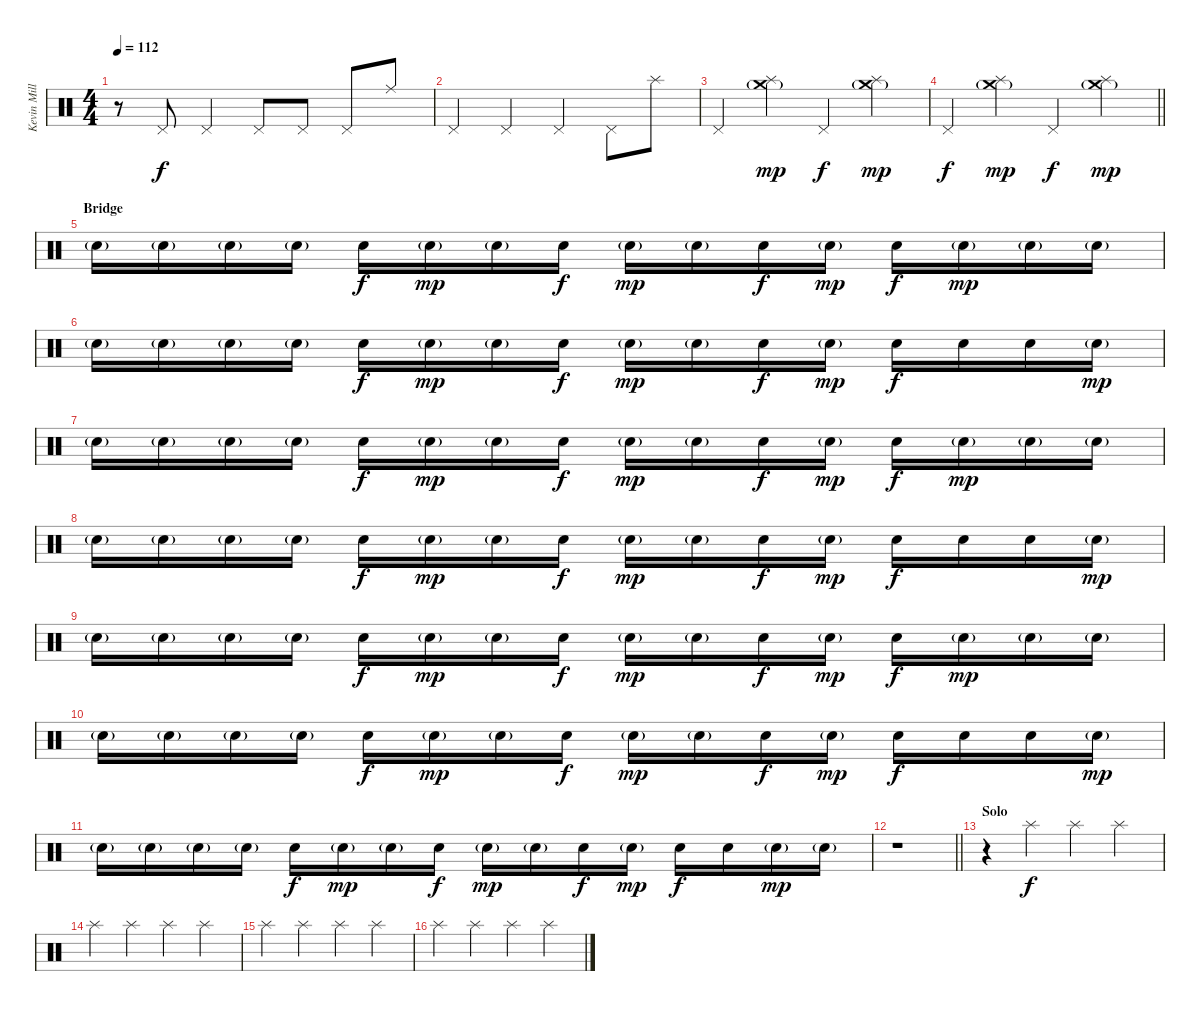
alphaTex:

\track ("Kevin Miller (Drums)" "Kevin Mill") {instrument percussion}
\staff {score}
\articulation defaults
\ts (4 4)
\tempo 112
\clef neutral
\ks c
r.8{dy f} "Pedal Hi-Hat (hit)".8 "Pedal Hi-Hat (hit)".4 "Pedal Hi-Hat (hit)".8 "Pedal Hi-Hat (hit)".8 "Pedal Hi-Hat (hit)".8 "Ride (middle)".8 |
"Pedal Hi-Hat (hit)".4 "Pedal Hi-Hat (hit)".4 "Pedal Hi-Hat (hit)".4 "Pedal Hi-Hat (hit)".8 "Splash (hit)".8 |
"Pedal Hi-Hat (hit)".4 ("Splash (hit)" "Crash medium (hit)"{g}).4{dy mp} "Pedal Hi-Hat (hit)".4{dy f} ("Splash (hit)" "Crash medium (hit)"{g}).4{dy mp} |
\barLineRight lightlight "Pedal Hi-Hat (hit)".4{dy f}
("Splash (hit)" "Crash medium (hit)"{g}).4{dy mp} "Pedal Hi-Hat (hit)".4{dy f} ("Splash (hit)" "Crash medium (hit)"{g}).4{dy mp} |
\section ("" "Bridge")
"Electric Snare (hit)"{g}.16 "Electric Snare (hit)"{g}.16 "Electric Snare (hit)"{g}.16 "Electric Snare (hit)"{g}.16 "Electric Snare (hit)".16{dy f} "Electric Snare (hit)"{g}.16{dy mp} "Electric Snare (hit)"{g}.16 "Electric Snare (hit)".16{dy f} "Electric Snare (hit)"{g}.16{dy mp} "Electric Snare (hit)"{g}.16 "Electric Snare (hit)".16{dy f} "Electric Snare (hit)"{g}.16{dy mp} "Electric Snare (hit)".16{dy f} "Electric Snare (hit)"{g}.16{dy mp} "Electric Snare (hit)"{g}.16 "Electric Snare (hit)"{g}.16 |
"Electric Snare (hit)"{g}.16 "Electric Snare (hit)"{g}.16 "Electric Snare (hit)"{g}.16 "Electric Snare (hit)"{g}.16 "Electric Snare (hit)".16{dy f} "Electric Snare (hit)"{g}.16{dy mp} "Electric Snare (hit)"{g}.16 "Electric Snare (hit)".16{dy f} "Electric Snare (hit)"{g}.16{dy mp} "Electric Snare (hit)"{g}.16 "Electric Snare (hit)".16{dy f} "Electric Snare (hit)"{g}.16{dy mp} "Electric Snare (hit)".16{dy f} "Electric Snare (hit)".16 "Electric Snare (hit)".16 "Electric Snare (hit)"{g}.16{dy mp} |
"Electric Snare (hit)"{g}.16 "Electric Snare (hit)"{g}.16 "Electric Snare (hit)"{g}.16 "Electric Snare (hit)"{g}.16 "Electric Snare (hit)".16{dy f} "Electric Snare (hit)"{g}.16{dy mp} "Electric Snare (hit)"{g}.16 "Electric Snare (hit)".16{dy f} "Electric Snare (hit)"{g}.16{dy mp} "Electric Snare (hit)"{g}.16 "Electric Snare (hit)".16{dy f} "Electric Snare (hit)"{g}.16{dy mp} "Electric Snare (hit)".16{dy f} "Electric Snare (hit)"{g}.16{dy mp} "Electric Snare (hit)"{g}.16 "Electric Snare (hit)"{g}.16 |
"Electric Snare (hit)"{g}.16 "Electric Snare (hit)"{g}.16 "Electric Snare (hit)"{g}.16 "Electric Snare (hit)"{g}.16 "Electric Snare (hit)".16{dy f} "Electric Snare (hit)"{g}.16{dy mp} "Electric Snare (hit)"{g}.16 "Electric Snare (hit)".16{dy f} "Electric Snare (hit)"{g}.16{dy mp} "Electric Snare (hit)"{g}.16 "Electric Snare (hit)".16{dy f} "Electric Snare (hit)"{g}.16{dy mp} "Electric Snare (hit)".16{dy f} "Electric Snare (hit)".16 "Electric Snare (hit)".16 "Electric Snare (hit)"{g}.16{dy mp} |
"Electric Snare (hit)"{g}.16 "Electric Snare (hit)"{g}.16 "Electric Snare (hit)"{g}.16 "Electric Snare (hit)"{g}.16 "Electric Snare (hit)".16{dy f} "Electric Snare (hit)"{g}.16{dy mp} "Electric Snare (hit)"{g}.16 "Electric Snare (hit)".16{dy f} "Electric Snare (hit)"{g}.16{dy mp} "Electric Snare (hit)"{g}.16 "Electric Snare (hit)".16{dy f} "Electric Snare (hit)"{g}.16{dy mp} "Electric Snare (hit)".16{dy f} "Electric Snare (hit)"{g}.16{dy mp} "Electric Snare (hit)"{g}.16 "Electric Snare (hit)"{g}.16 |
"Electric Snare (hit)"{g}.16 "Electric Snare (hit)"{g}.16 "Electric Snare (hit)"{g}.16 "Electric Snare (hit)"{g}.16 "Electric Snare (hit)".16{dy f} "Electric Snare (hit)"{g}.16{dy mp} "Electric Snare (hit)"{g}.16 "Electric Snare (hit)".16{dy f} "Electric Snare (hit)"{g}.16{dy mp} "Electric Snare (hit)"{g}.16 "Electric Snare (hit)".16{dy f} "Electric Snare (hit)"{g}.16{dy mp} "Electric Snare (hit)".16{dy f} "Electric Snare (hit)".16 "Electric Snare (hit)".16 "Electric Snare (hit)"{g}.16{dy mp} |
"Electric Snare (hit)"{g}.16 "Electric Snare (hit)"{g}.16 "Electric Snare (hit)"{g}.16 "Electric Snare (hit)"{g}.16 "Electric Snare (hit)".16{dy f} "Electric Snare (hit)"{g}.16{dy mp} "Electric Snare (hit)"{g}.16 "Electric Snare (hit)".16{dy f} "Electric Snare (hit)"{g}.16{dy mp} "Electric Snare (hit)"{g}.16 "Electric Snare (hit)".16{dy f} "Electric Snare (hit)"{g}.16{dy mp} "Electric Snare (hit)".16{dy f} "Electric Snare (hit)".16 "Electric Snare (hit)"{g}.16{dy mp} "Electric Snare (hit)"{g}.16 |
\barLineRight lightlight
r.1 |
\section ("" "Solo")
r.4 "Splash (hit)".4{dy f} "Splash (hit)".4 "Splash (hit)".4 |
"Splash (hit)".4 "Splash (hit)".4 "Splash (hit)".4 "Splash (hit)".4 |
"Splash (hit)".4 "Splash (hit)".4 "Splash (hit)".4 "Splash (hit)".4 |
"Splash (hit)".4 "Splash (hit)".4 "Splash (hit)".4 "Splash (hit)".4
